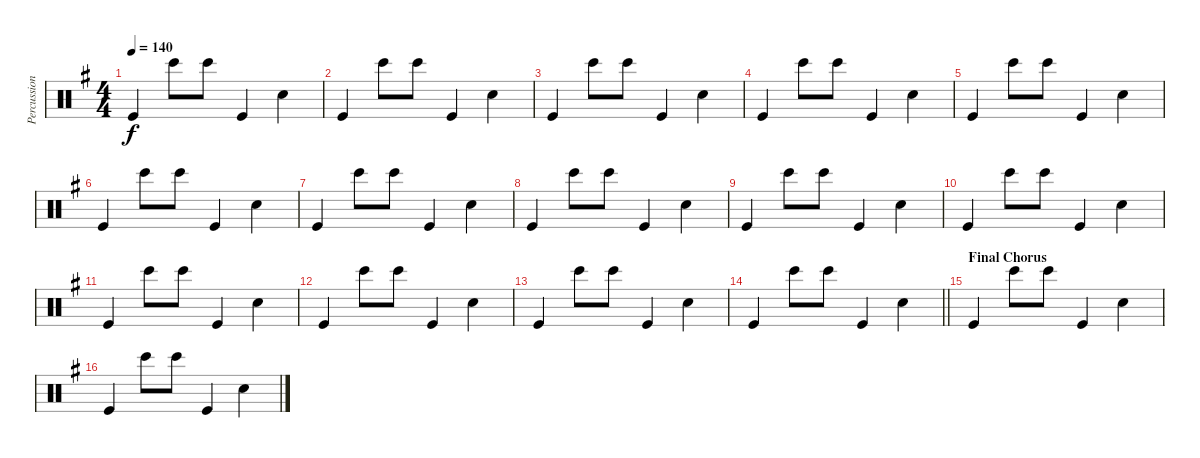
\track ("Percussion" "Percussion") {instrument percussion}
\staff {score}
\articulation defaults
\ts (4 4)
\tempo 140
\clef neutral
\ks g "Kick (hit)".4{dy f} "Bongo High (hit)".8 "Bongo High (hit)".8 "Kick (hit)".4 "Electric Snare (hit)".4
|
"Kick (hit)".4 "Bongo High (hit)".8 "Bongo High (hit)".8 "Kick (hit)".4 "Electric Snare (hit)".4 |
"Kick (hit)".4 "Bongo High (hit)".8 "Bongo High (hit)".8 "Kick (hit)".4 "Electric Snare (hit)".4 |
"Kick (hit)".4 "Bongo High (hit)".8 "Bongo High (hit)".8 "Kick (hit)".4 "Electric Snare (hit)".4 |
"Kick (hit)".4 "Bongo High (hit)".8 "Bongo High (hit)".8 "Kick (hit)".4 "Electric Snare (hit)".4 |
"Kick (hit)".4 "Bongo High (hit)".8 "Bongo High (hit)".8 "Kick (hit)".4 "Electric Snare (hit)".4 |
"Kick (hit)".4 "Bongo High (hit)".8 "Bongo High (hit)".8 "Kick (hit)".4 "Electric Snare (hit)".4 |
"Kick (hit)".4 "Bongo High (hit)".8 "Bongo High (hit)".8 "Kick (hit)".4 "Electric Snare (hit)".4 |
"Kick (hit)".4 "Bongo High (hit)".8 "Bongo High (hit)".8 "Kick (hit)".4 "Electric Snare (hit)".4 |
"Kick (hit)".4 "Bongo High (hit)".8 "Bongo High (hit)".8 "Kick (hit)".4 "Electric Snare (hit)".4 |
"Kick (hit)".4 "Bongo High (hit)".8 "Bongo High (hit)".8 "Kick (hit)".4 "Electric Snare (hit)".4 |
"Kick (hit)".4 "Bongo High (hit)".8 "Bongo High (hit)".8 "Kick (hit)".4 "Electric Snare (hit)".4 |
"Kick (hit)".4 "Bongo High (hit)".8 "Bongo High (hit)".8 "Kick (hit)".4 "Electric Snare (hit)".4 |
\barLineRight lightlight "Kick (hit)".4 "Bongo High (hit)".8 "Bongo High (hit)".8 "Kick (hit)".4 "Electric Snare (hit)".4
|
\section ("" "Final Chorus")
"Kick (hit)".4 "Bongo High (hit)".8 "Bongo High (hit)".8 "Kick (hit)".4 "Electric Snare (hit)".4 |
"Kick (hit)".4 "Bongo High (hit)".8 "Bongo High (hit)".8 "Kick (hit)".4 "Electric Snare (hit)".4
